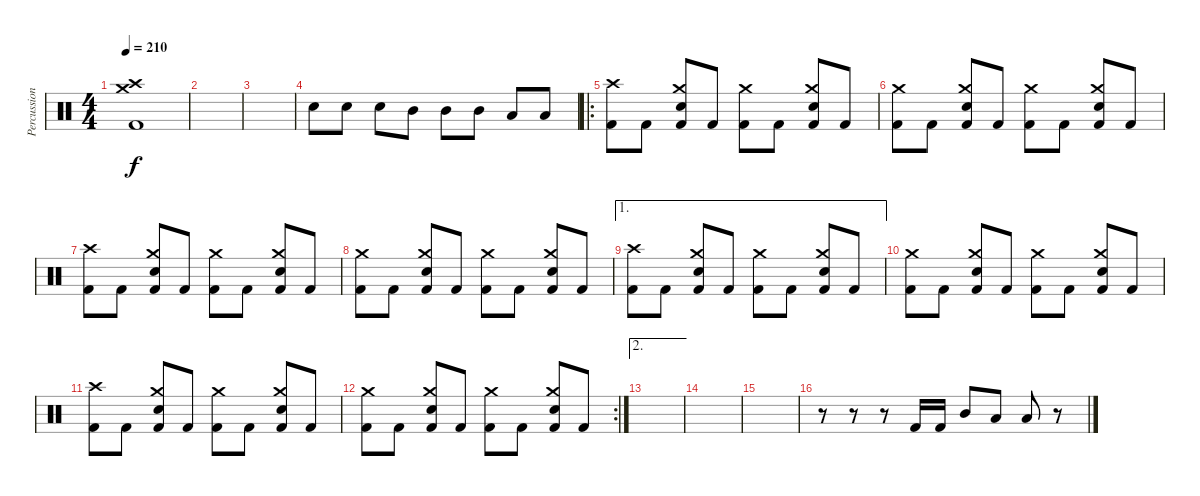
\track ("Percussions" "Percussion") {instrument percussion}
\staff {score}
\articulation defaults
\ts (4 4)
\tempo 210
\clef neutral
\ks c
("Kick (hit) 2" "Crash high (hit)" "Crash medium (hit)").1{dy f} |
|
|
"Electric Snare (hit)".8 "Electric Snare (hit)".8 "Electric Snare (hit)".8 "Mid Tom (hit)".8 "Mid Tom (hit)".8 "Mid Tom (hit)".8 "Low Tom (hit)".8 "Low Tom (hit)".8 |
\ro
("Kick (hit) 2" "Crash high (hit)").8 "Kick (hit) 2".8 ("Kick (hit) 2" "Electric Snare (hit)" "Crash medium (hit)").8 "Kick (hit) 2".8 ("Kick (hit) 2" "Crash medium (hit)").8 "Kick (hit) 2".8 ("Kick (hit) 2" "Electric Snare (hit)" "Crash medium (hit)").8 "Kick (hit) 2".8 |
("Kick (hit) 2" "Crash medium (hit)").8 "Kick (hit) 2".8 ("Kick (hit) 2" "Electric Snare (hit)" "Crash medium (hit)").8 "Kick (hit) 2".8 ("Kick (hit) 2" "Crash medium (hit)").8 "Kick (hit) 2".8 ("Kick (hit) 2" "Electric Snare (hit)" "Crash medium (hit)").8 "Kick (hit) 2".8 |
("Kick (hit) 2" "Crash high (hit)").8 "Kick (hit) 2".8 ("Kick (hit) 2" "Electric Snare (hit)" "Crash medium (hit)").8 "Kick (hit) 2".8 ("Kick (hit) 2" "Crash medium (hit)").8 "Kick (hit) 2".8 ("Kick (hit) 2" "Electric Snare (hit)" "Crash medium (hit)").8 "Kick (hit) 2".8 |
("Kick (hit) 2" "Crash medium (hit)").8 "Kick (hit) 2".8 ("Kick (hit) 2" "Electric Snare (hit)" "Crash medium (hit)").8 "Kick (hit) 2".8 ("Kick (hit) 2" "Crash medium (hit)").8 "Kick (hit) 2".8 ("Kick (hit) 2" "Electric Snare (hit)" "Crash medium (hit)").8 "Kick (hit) 2".8 |
\ae 1
("Kick (hit) 2" "Crash high (hit)").8 "Kick (hit) 2".8 ("Kick (hit) 2" "Electric Snare (hit)" "Crash medium (hit)").8 "Kick (hit) 2".8 ("Kick (hit) 2" "Crash medium (hit)").8 "Kick (hit) 2".8 ("Kick (hit) 2" "Electric Snare (hit)" "Crash medium (hit)").8 "Kick (hit) 2".8 |
("Kick (hit) 2" "Crash medium (hit)").8 "Kick (hit) 2".8 ("Kick (hit) 2" "Electric Snare (hit)" "Crash medium (hit)").8 "Kick (hit) 2".8 ("Kick (hit) 2" "Crash medium (hit)").8 "Kick (hit) 2".8 ("Kick (hit) 2" "Electric Snare (hit)" "Crash medium (hit)").8 "Kick (hit) 2".8 |
("Kick (hit) 2" "Crash high (hit)").8 "Kick (hit) 2".8 ("Kick (hit) 2" "Electric Snare (hit)" "Crash medium (hit)").8 "Kick (hit) 2".8 ("Kick (hit) 2" "Crash medium (hit)").8 "Kick (hit) 2".8 ("Kick (hit) 2" "Electric Snare (hit)" "Crash medium (hit)").8 "Kick (hit) 2".8 |
\rc 2
("Kick (hit) 2" "Crash medium (hit)").8 "Kick (hit) 2".8 ("Kick (hit) 2" "Electric Snare (hit)" "Crash medium (hit)").8 "Kick (hit) 2".8 ("Kick (hit) 2" "Crash medium (hit)").8 "Kick (hit) 2".8 ("Kick (hit) 2" "Electric Snare (hit)" "Crash medium (hit)").8 "Kick (hit) 2".8 |
\ae 2
|
|
|
r.8 r.8 r.8 "Kick (hit) 2".16 "Kick (hit) 2".16 "Mid Tom (hit)".8 "Low Tom (hit)".8 "Low Tom (hit)".8 r.8
